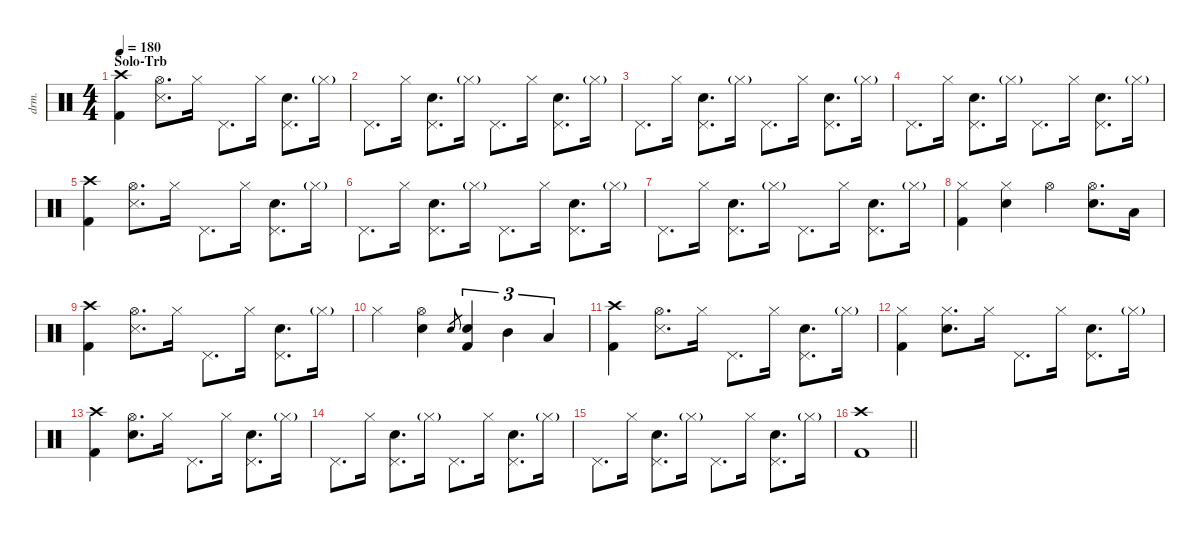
\defaultSystemsLayout 4
\hideDynamics
\bracketExtendMode nobrackets
\otherSystemsTrackNameOrientation horizontal
\track ("Drums" "drm.") {instrument percussion}
\staff {score}
\articulation defaults
\ts (4 4)
\section ("" "Solo-Trb")
\tempo 180
\clef neutral
\ks c
("Crash high (hit)" "Kick (hit) 2").4{dy f} ("Hi-Hat (open)" "Snare (side stick) 3").8{d} "Hi-Hat (closed)".16 "Pedal Hi-Hat (hit)".8{d} "Hi-Hat (closed)".16 ("Pedal Hi-Hat (hit)" "Snare (hit) 2").8{d} "Hi-Hat (closed)"{g}.16{dy mf} |
"Pedal Hi-Hat (hit)".8{d dy f} "Hi-Hat (closed)".16 ("Pedal Hi-Hat (hit)" "Snare (hit) 2").8{d} "Hi-Hat (closed)"{g}.16{dy mf} "Pedal Hi-Hat (hit)".8{d dy f} "Hi-Hat (closed)".16 ("Pedal Hi-Hat (hit)" "Snare (hit) 2").8{d} "Hi-Hat (closed)"{g}.16{dy mf} |
"Pedal Hi-Hat (hit)".8{d dy f} "Hi-Hat (closed)".16 ("Pedal Hi-Hat (hit)" "Snare (hit) 2").8{d} "Hi-Hat (closed)"{g}.16{dy mf} "Pedal Hi-Hat (hit)".8{d dy f} "Hi-Hat (closed)".16 ("Pedal Hi-Hat (hit)" "Snare (hit) 2").8{d} "Hi-Hat (closed)"{g}.16{dy mf} |
"Pedal Hi-Hat (hit)".8{d dy f} "Hi-Hat (closed)".16 ("Pedal Hi-Hat (hit)" "Snare (hit) 2").8{d} "Hi-Hat (closed)"{g}.16{dy mf} "Pedal Hi-Hat (hit)".8{d dy f} "Hi-Hat (closed)".16 ("Pedal Hi-Hat (hit)" "Snare (hit) 2").8{d} "Hi-Hat (closed)"{g}.16{dy mf} |
("Crash high (hit)" "Kick (hit) 2").4{dy f} ("Hi-Hat (open)" "Snare (side stick) 3").8{d} "Hi-Hat (closed)".16 "Pedal Hi-Hat (hit)".8{d} "Hi-Hat (closed)".16 ("Pedal Hi-Hat (hit)" "Snare (hit) 2").8{d} "Hi-Hat (closed)"{g}.16{dy mf} |
"Pedal Hi-Hat (hit)".8{d dy f} "Hi-Hat (closed)".16 ("Pedal Hi-Hat (hit)" "Snare (hit) 2").8{d} "Hi-Hat (closed)"{g}.16{dy mf} "Pedal Hi-Hat (hit)".8{d dy f} "Hi-Hat (closed)".16 ("Pedal Hi-Hat (hit)" "Snare (hit) 2").8{d} "Hi-Hat (closed)"{g}.16{dy mf} |
"Pedal Hi-Hat (hit)".8{d dy f} "Hi-Hat (closed)".16 ("Pedal Hi-Hat (hit)" "Snare (hit) 2").8{d} "Hi-Hat (closed)"{g}.16{dy mf} "Pedal Hi-Hat (hit)".8{d dy f} "Hi-Hat (closed)".16 ("Pedal Hi-Hat (hit)" "Snare (hit) 2").8{d} "Hi-Hat (closed)"{g}.16{dy mf} |
("Hi-Hat (closed)" "Kick (hit) 2").4{dy f} ("Hi-Hat (closed)" "Snare (hit) 2").4 "Hi-Hat (open)".4 ("Hi-Hat (open)" "Snare (hit) 2").8{d} "Low Tom (hit)".16 |
("Crash high (hit)" "Kick (hit) 2").4 ("Hi-Hat (open)" "Snare (side stick) 3").8{d} "Hi-Hat (closed)".16 "Pedal Hi-Hat (hit)".8{d} "Hi-Hat (closed)".16 ("Pedal Hi-Hat (hit)" "Snare (hit) 2").8{d} "Hi-Hat (closed)"{g}.16{dy mf} |
"Hi-Hat (closed)".4{dy f} ("Hi-Hat (open)" "Snare (hit) 2").4 "Snare (hit) 2".8{gr dy mf} ("Snare (hit) 2" "Kick (hit) 2").4{tu (3 2) dy f} "Mid Tom (hit)".4{tu (3 2)} "Low Tom (hit)".4{tu (3 2)} |
("Crash high (hit)" "Kick (hit) 2").4 ("Hi-Hat (open)" "Snare (side stick) 3").8{d} "Hi-Hat (closed)".16 "Pedal Hi-Hat (hit)".8{d} "Hi-Hat (closed)".16 ("Pedal Hi-Hat (hit)" "Snare (hit) 2").8{d} "Hi-Hat (closed)"{g}.16{dy mf} |
("Hi-Hat (closed)" "Kick (hit) 2").4{dy f} ("Hi-Hat (closed)" "Snare (hit) 2").8{d} "Hi-Hat (closed)".16 "Pedal Hi-Hat (hit)".8{d} "Hi-Hat (closed)".16 ("Pedal Hi-Hat (hit)" "Snare (hit) 2").8{d} "Hi-Hat (closed)"{g}.16{dy mf} |
("Crash high (hit)" "Kick (hit) 2").4{dy f} ("Hi-Hat (open)" "Snare (hit) 2").8{d} "Hi-Hat (closed)".16 "Pedal Hi-Hat (hit)".8{d} "Hi-Hat (closed)".16 ("Pedal Hi-Hat (hit)" "Snare (hit) 2").8{d} "Hi-Hat (closed)"{g}.16{dy mf} |
"Pedal Hi-Hat (hit)".8{d dy f} "Hi-Hat (closed)".16 ("Pedal Hi-Hat (hit)" "Snare (hit) 2").8{d} "Hi-Hat (closed)"{g}.16{dy mf} "Pedal Hi-Hat (hit)".8{d dy f} "Hi-Hat (closed)".16 ("Pedal Hi-Hat (hit)" "Snare (hit) 2").8{d} "Hi-Hat (closed)"{g}.16{dy mf} |
"Pedal Hi-Hat (hit)".8{d dy f} "Hi-Hat (closed)".16 ("Pedal Hi-Hat (hit)" "Snare (hit) 2").8{d} "Hi-Hat (closed)"{g}.16{dy mf} "Pedal Hi-Hat (hit)".8{d dy f} "Hi-Hat (closed)".16 ("Pedal Hi-Hat (hit)" "Snare (hit) 2").8{d} "Hi-Hat (closed)"{g}.16{dy mf} |
\barLineRight lightlight
("Crash high (hit)" "Kick (hit) 2").1
